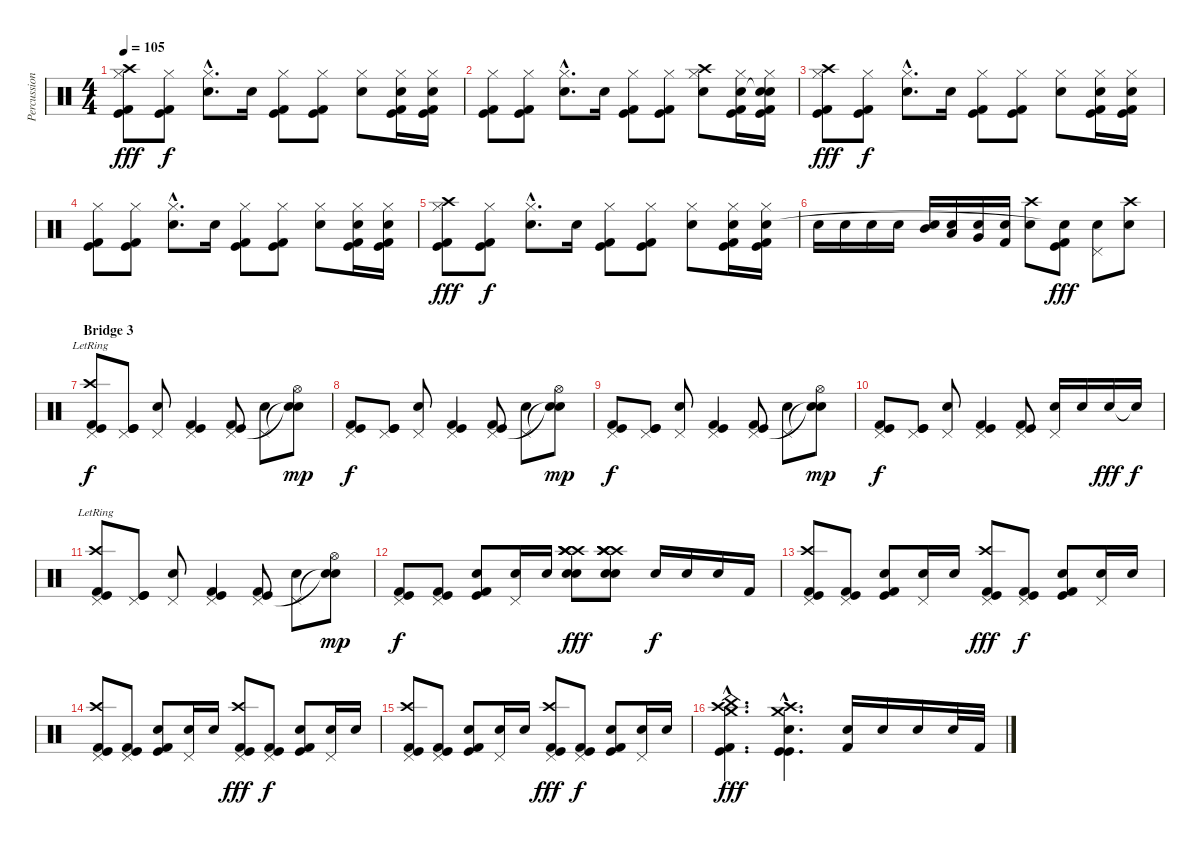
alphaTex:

\track ("Percussion" "Percussion") {instrument percussion}
\staff {score}
\articulation defaults
\ts (4 4)
\tempo 105
\clef neutral
\ks c
("Kick (hit)" "Kick (hit) 2" "Hi-Hat (closed)" "Crash high (hit)").8{dy fff} ("Kick (hit)" "Kick (hit) 2" "Hi-Hat (closed)").8{dy f} ("Electric Snare (hit)"{hac} "Hi-Hat (closed)"{hac}).8{d} "Electric Snare (hit)".16 ("Kick (hit)" "Kick (hit) 2" "Hi-Hat (closed)").8 ("Kick (hit)" "Kick (hit) 2" "Hi-Hat (closed)").8 ("Electric Snare (hit)" "Hi-Hat (closed)").8 ("Kick (hit) 2" "Kick (hit)" "Electric Snare (hit)" "Hi-Hat (closed)").16 ("Kick (hit) 2" "Kick (hit)" "Electric Snare (hit)" "Hi-Hat (closed)").16 |
("Kick (hit)" "Kick (hit) 2" "Hi-Hat (closed)").8 ("Kick (hit)" "Kick (hit) 2" "Hi-Hat (closed)").8 ("Electric Snare (hit)"{hac} "Hi-Hat (closed)"{hac}).8{d} "Electric Snare (hit)".16 ("Kick (hit)" "Kick (hit) 2" "Hi-Hat (closed)").8 ("Kick (hit)" "Kick (hit) 2" "Hi-Hat (closed)").8 ("Crash high (hit)" "Electric Snare (hit)" "Hi-Hat (closed)").8 ("Kick (hit) 2" "Kick (hit)" "Electric Snare (hit)" "Hi-Hat (closed)").16 ("Kick (hit) 2" "Kick (hit)" "Snare (hit)"{t} "Electric Snare (hit)" "Hi-Hat (closed)").16 |
("Kick (hit)" "Kick (hit) 2" "Hi-Hat (closed)" "Crash high (hit)").8{dy fff} ("Kick (hit)" "Kick (hit) 2" "Hi-Hat (closed)").8{dy f} ("Electric Snare (hit)"{hac} "Hi-Hat (closed)"{hac}).8{d} "Electric Snare (hit)".16 ("Kick (hit)" "Kick (hit) 2" "Hi-Hat (closed)").8 ("Kick (hit)" "Kick (hit) 2" "Hi-Hat (closed)").8 ("Electric Snare (hit)" "Hi-Hat (closed)").8 ("Kick (hit) 2" "Kick (hit)" "Electric Snare (hit)" "Hi-Hat (closed)").16 ("Kick (hit) 2" "Kick (hit)" "Electric Snare (hit)" "Hi-Hat (closed)").16 |
("Kick (hit)" "Kick (hit) 2" "Hi-Hat (closed)").8 ("Kick (hit)" "Kick (hit) 2" "Hi-Hat (closed)").8 ("Electric Snare (hit)"{hac} "Hi-Hat (closed)"{hac}).8{d} "Electric Snare (hit)".16 ("Kick (hit)" "Kick (hit) 2" "Hi-Hat (closed)").8 ("Kick (hit)" "Kick (hit) 2" "Hi-Hat (closed)").8 ("Electric Snare (hit)" "Hi-Hat (closed)").8 ("Kick (hit) 2" "Kick (hit)" "Electric Snare (hit)" "Hi-Hat (closed)").16 ("Kick (hit) 2" "Kick (hit)" "Electric Snare (hit)" "Hi-Hat (closed)").16 |
("Kick (hit)" "Kick (hit) 2" "Hi-Hat (closed)" "Crash high (hit)").8{dy fff} ("Kick (hit)" "Kick (hit) 2" "Hi-Hat (closed)").8{dy f} ("Electric Snare (hit)"{hac} "Hi-Hat (closed)"{hac}).8{d} "Electric Snare (hit)".16 ("Kick (hit)" "Kick (hit) 2" "Hi-Hat (closed)").8 ("Kick (hit)" "Kick (hit) 2" "Hi-Hat (closed)").8 ("Electric Snare (hit)" "Hi-Hat (closed)").8 ("Kick (hit) 2" "Kick (hit)" "Electric Snare (hit)" "Hi-Hat (closed)").16 ("Kick (hit) 2" "Kick (hit)" "Electric Snare (hit)" "Hi-Hat (closed)").16 |
"Electric Snare (hit)".16 "Snare (hit) 2".16 "Electric Snare (hit)".16 "Snare (hit) 2".16 ("Mid Tom (hit)" "Electric Snare (hit)").16 ("Low Tom (hit)" "Snare (hit) 2").16 ("Very Low Tom (hit)" "Electric Snare (hit)").16 ("Kick (hit) 2" "Snare (hit) 2").16 ("Electric Snare (hit)" "Crash high (hit)").8 ("Kick (hit) 2" "Kick (hit)" "Snare (hit)"{t}).8{dy fff} ("Electric Snare (hit)" "Pedal Hi-Hat (hit)").8 ("Crash high (hit)" "Snare (hit) 2").8 |
\section ("" "Bridge 3")
("Kick (hit) 2" "Kick (hit)" "Pedal Hi-Hat (hit)" "Crash high (hit)"{lr}).8{dy f} ("Kick (hit)" "Kick (hit)" "Pedal Hi-Hat (hit)").8 ("Electric Snare (hit)" "Pedal Hi-Hat (hit)").8 ("Kick (hit)" "Kick (hit) 2" "Pedal Hi-Hat (hit)").4 ("Kick (hit)" "Kick (hit) 2" "Pedal Hi-Hat (hit)").8 ("Electric Snare (hit)" "Pedal Hi-Hat (hit)").8 ("Hi-Hat (open)" "Snare (hit)"{t} "Snare (hit)"{t}).8{dy mp} |
("Kick (hit) 2" "Kick (hit)" "Pedal Hi-Hat (hit)").8{dy f} ("Kick (hit)" "Kick (hit)" "Pedal Hi-Hat (hit)").8 ("Electric Snare (hit)" "Pedal Hi-Hat (hit)").8 ("Kick (hit)" "Kick (hit) 2" "Pedal Hi-Hat (hit)").4 ("Kick (hit)" "Kick (hit) 2" "Pedal Hi-Hat (hit)").8 ("Electric Snare (hit)" "Pedal Hi-Hat (hit)").8 ("Hi-Hat (open)" "Snare (hit)"{t} "Snare (hit)"{t}).8{dy mp} |
("Kick (hit) 2" "Kick (hit)" "Pedal Hi-Hat (hit)").8{dy f} ("Kick (hit)" "Kick (hit)" "Pedal Hi-Hat (hit)").8 ("Electric Snare (hit)" "Pedal Hi-Hat (hit)").8 ("Kick (hit)" "Kick (hit) 2" "Pedal Hi-Hat (hit)").4 ("Kick (hit)" "Kick (hit) 2" "Pedal Hi-Hat (hit)").8 ("Electric Snare (hit)" "Pedal Hi-Hat (hit)").8 ("Hi-Hat (open)" "Snare (hit)"{t} "Snare (hit)"{t}).8{dy mp} |
("Kick (hit) 2" "Kick (hit)" "Pedal Hi-Hat (hit)").8{dy f} ("Kick (hit)" "Kick (hit)" "Pedal Hi-Hat (hit)").8 ("Electric Snare (hit)" "Pedal Hi-Hat (hit)").8 ("Kick (hit)" "Kick (hit) 2" "Pedal Hi-Hat (hit)").4 ("Kick (hit)" "Kick (hit) 2" "Pedal Hi-Hat (hit)").8 ("Electric Snare (hit)" "Pedal Hi-Hat (hit)").16 "Electric Snare (hit)".16 "Snare (hit) 2".16{dy fff} "Snare (hit)"{t}.16{dy f} |
("Kick (hit) 2" "Kick (hit)" "Pedal Hi-Hat (hit)" "Crash high (hit)"{lr}).8 ("Kick (hit)" "Kick (hit)" "Pedal Hi-Hat (hit)").8 ("Electric Snare (hit)" "Pedal Hi-Hat (hit)").8 ("Kick (hit)" "Kick (hit) 2" "Pedal Hi-Hat (hit)").4 ("Kick (hit)" "Kick (hit) 2" "Pedal Hi-Hat (hit)").8 ("Electric Snare (hit)" "Pedal Hi-Hat (hit)").8 ("Hi-Hat (open)" "Snare (hit)"{t} "Snare (hit)"{t}).8{dy mp} |
("Kick (hit) 2" "Kick (hit)" "Pedal Hi-Hat (hit)").8{dy f} ("Kick (hit) 2" "Kick (hit)" "Pedal Hi-Hat (hit)").8 ("Kick (hit)" "Kick (hit) 2" "Electric Snare (hit)").8 ("Pedal Hi-Hat (hit)" "Electric Snare (hit)").16 "Snare (hit) 2".16 ("Crash high (hit)" "Snare (hit) 2" "Electric Snare (hit)" "Crash high (hit)" "Crash high (hit)" "Crash high (hit)").8{dy fff} ("Crash high (hit)" "Snare (hit) 2" "Electric Snare (hit)" "Crash high (hit)" "Crash high (hit)" "Crash high (hit)").8 "Electric Snare (hit)".16{dy f} "Snare (hit) 2".16 "Snare (hit) 2".16 "Kick (hit) 2".16 |
("Kick (hit) 2" "Kick (hit)" "Pedal Hi-Hat (hit)" "Crash high (hit)").8 ("Kick (hit) 2" "Kick (hit)" "Pedal Hi-Hat (hit)").8 ("Kick (hit)" "Kick (hit) 2" "Electric Snare (hit)").8 ("Pedal Hi-Hat (hit)" "Electric Snare (hit)").16 "Snare (hit) 2".16 ("Kick (hit) 2" "Kick (hit)" "Pedal Hi-Hat (hit)" "Crash high (hit)").8{dy fff} ("Kick (hit) 2" "Kick (hit)" "Pedal Hi-Hat (hit)").8{dy f} ("Kick (hit)" "Kick (hit) 2" "Electric Snare (hit)").8 ("Pedal Hi-Hat (hit)" "Electric Snare (hit)").16 "Snare (hit) 2".16 |
("Kick (hit) 2" "Kick (hit)" "Pedal Hi-Hat (hit)" "Crash high (hit)").8 ("Kick (hit) 2" "Kick (hit)" "Pedal Hi-Hat (hit)").8 ("Kick (hit)" "Kick (hit) 2" "Electric Snare (hit)").8 ("Pedal Hi-Hat (hit)" "Electric Snare (hit)").16 "Snare (hit) 2".16 ("Kick (hit) 2" "Kick (hit)" "Pedal Hi-Hat (hit)" "Crash high (hit)").8{dy fff} ("Kick (hit) 2" "Kick (hit)" "Pedal Hi-Hat (hit)").8{dy f} ("Kick (hit)" "Kick (hit) 2" "Electric Snare (hit)").8 ("Pedal Hi-Hat (hit)" "Electric Snare (hit)").16 "Snare (hit) 2".16 |
("Kick (hit) 2" "Kick (hit)" "Pedal Hi-Hat (hit)" "Crash high (hit)").8 ("Kick (hit) 2" "Kick (hit)" "Pedal Hi-Hat (hit)").8 ("Kick (hit)" "Kick (hit) 2" "Electric Snare (hit)").8 ("Pedal Hi-Hat (hit)" "Electric Snare (hit)").16 "Snare (hit) 2".16 ("Kick (hit) 2" "Kick (hit)" "Pedal Hi-Hat (hit)" "Crash high (hit)").8{dy fff} ("Kick (hit) 2" "Kick (hit)" "Pedal Hi-Hat (hit)").8{dy f} ("Kick (hit)" "Kick (hit) 2" "Electric Snare (hit)").8 ("Pedal Hi-Hat (hit)" "Electric Snare (hit)").16 "Snare (hit) 2".16 |
("Kick (hit) 2"{hac} "Kick (hit)"{hac} "Crash high (hit)"{hac} "China (hit)"{hac} "Crash medium (hit)"{hac}).4{d dy fff} ("Kick (hit)"{hac} "Kick (hit)"{hac} "Electric Snare (hit)"{hac} "Crash high (hit)"{hac} "Crash medium (hit)"{hac}).4{d} ("Kick (hit) 2" "Snare (hit) 2").16 "Electric Snare (hit)".16 "Snare (hit) 2".16 "Snare (hit) 2".32 "Kick (hit) 2".32
